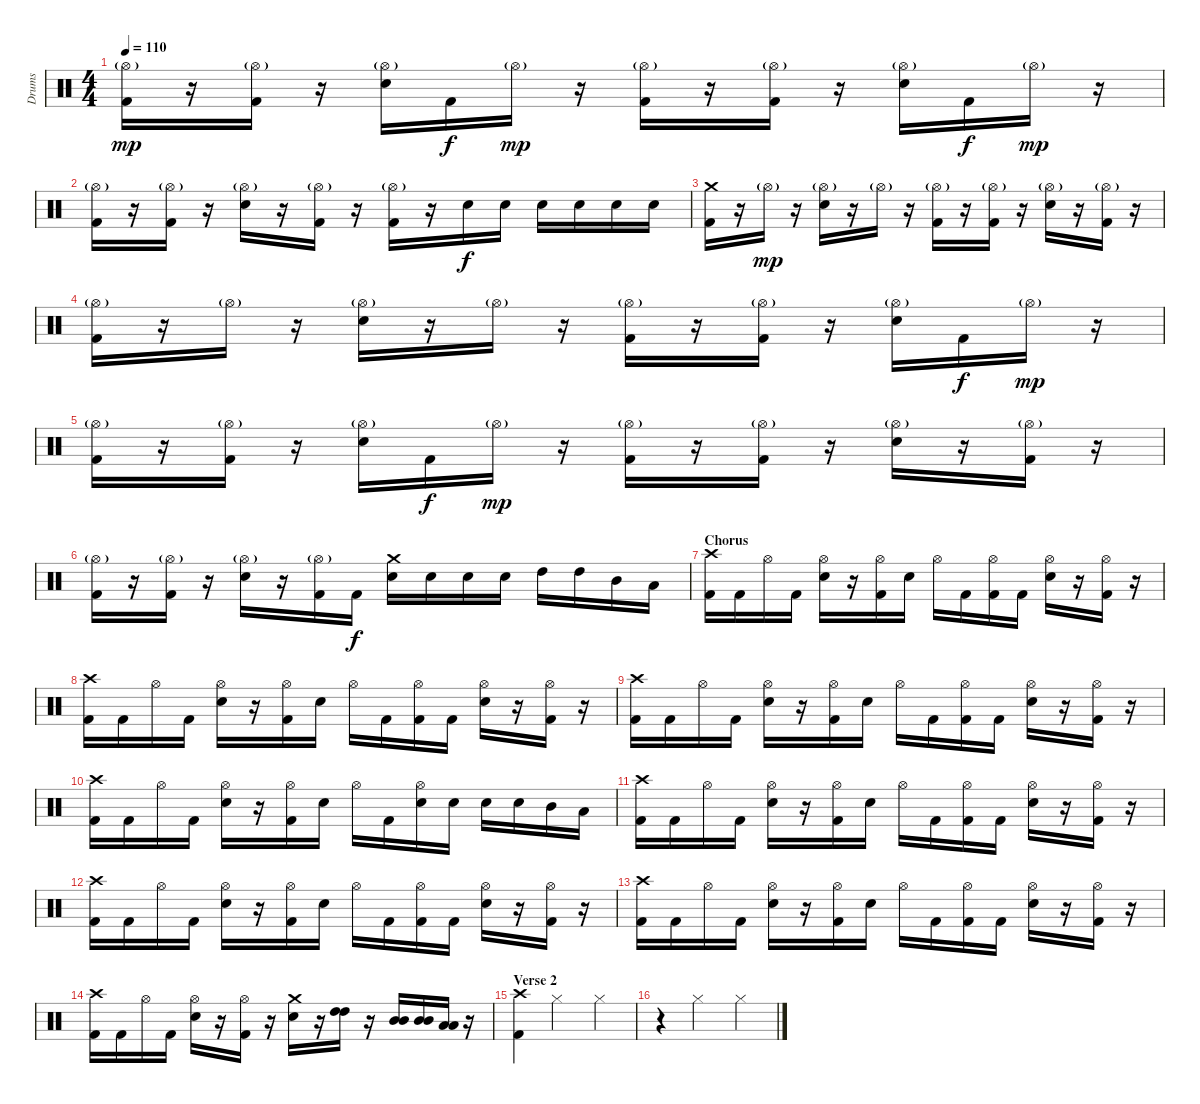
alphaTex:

\track ("Drums" "Drums") {instrument percussion}
\staff {score}
\articulation defaults
\ts (4 4)
\tempo 110
\clef neutral
\ks c
("Hi-Hat (open)"{g} "Kick (hit) 2").16{dy mp} r.16 ("Hi-Hat (open)"{g} "Kick (hit) 2").16 r.16 ("Hi-Hat (open)"{g} "Electric Snare (hit)").16 "Kick (hit) 2".16{dy f} "Hi-Hat (open)"{g}.16{dy mp} r.16 ("Hi-Hat (open)"{g} "Kick (hit) 2").16 r.16 ("Hi-Hat (open)"{g} "Kick (hit) 2").16 r.16 ("Hi-Hat (open)"{g} "Electric Snare (hit)").16 "Kick (hit) 2".16{dy f} "Hi-Hat (open)"{g}.16{dy mp} r.16 |
("Hi-Hat (open)"{g} "Kick (hit) 2").16 r.16 ("Hi-Hat (open)"{g} "Kick (hit) 2").16 r.16 ("Hi-Hat (open)"{g} "Electric Snare (hit)").16 r.16 ("Hi-Hat (open)"{g} "Kick (hit) 2").16 r.16 ("Hi-Hat (open)"{g} "Kick (hit) 2").16 r.16 "Electric Snare (hit)".16{dy f} "Electric Snare (hit)".16 "Electric Snare (hit)".16 "Electric Snare (hit)".16 "Electric Snare (hit)".16 "Electric Snare (hit)".16 |
("Crash medium (hit)" "Kick (hit) 2").16 r.16 "Hi-Hat (open)"{g}.16{dy mp} r.16 ("Hi-Hat (open)"{g} "Electric Snare (hit)").16 r.16 "Hi-Hat (open)"{g}.16 r.16 ("Hi-Hat (open)"{g} "Kick (hit) 2").16 r.16 ("Hi-Hat (open)"{g} "Kick (hit) 2").16 r.16 ("Hi-Hat (open)"{g} "Electric Snare (hit)").16 r.16 ("Hi-Hat (open)"{g} "Kick (hit) 2").16 r.16 |
("Hi-Hat (open)"{g} "Kick (hit) 2").16 r.16 "Hi-Hat (open)"{g}.16 r.16 ("Hi-Hat (open)"{g} "Electric Snare (hit)").16 r.16 "Hi-Hat (open)"{g}.16 r.16 ("Hi-Hat (open)"{g} "Kick (hit) 2").16 r.16 ("Hi-Hat (open)"{g} "Kick (hit) 2").16 r.16 ("Hi-Hat (open)"{g} "Electric Snare (hit)").16 "Kick (hit) 2".16{dy f} "Hi-Hat (open)"{g}.16{dy mp} r.16 |
("Hi-Hat (open)"{g} "Kick (hit) 2").16 r.16 ("Hi-Hat (open)"{g} "Kick (hit) 2").16 r.16 ("Hi-Hat (open)"{g} "Electric Snare (hit)").16 "Kick (hit) 2".16{dy f} "Hi-Hat (open)"{g}.16{dy mp} r.16 ("Hi-Hat (open)"{g} "Kick (hit) 2").16 r.16 ("Hi-Hat (open)"{g} "Kick (hit) 2").16 r.16 ("Hi-Hat (open)"{g} "Electric Snare (hit)").16 r.16 ("Hi-Hat (open)"{g} "Kick (hit) 2").16 r.16 |
("Hi-Hat (open)"{g} "Kick (hit) 2").16 r.16 ("Hi-Hat (open)"{g} "Kick (hit) 2").16 r.16 ("Hi-Hat (open)"{g} "Electric Snare (hit)").16 r.16 ("Hi-Hat (open)"{g} "Kick (hit) 2").16 "Kick (hit) 2".16{dy f} ("Crash medium (hit)" "Electric Snare (hit)").16 "Electric Snare (hit)".16 "Electric Snare (hit)".16 "Electric Snare (hit)".16 "High Tom (hit)".16 "High Tom (hit)".16 "Mid Tom (hit)".16 "Low Tom (hit)".16 |
\section ("" "Chorus")
("Crash high (hit)" "Kick (hit) 2").16 "Kick (hit) 2".16 "Hi-Hat (open)".16 "Kick (hit) 2".16 ("Hi-Hat (open)" "Electric Snare (hit)").16 r.16 ("Hi-Hat (open)" "Kick (hit) 2").16 "Electric Snare (hit)".16 "Hi-Hat (open)".16 "Kick (hit) 2".16 ("Hi-Hat (open)" "Kick (hit) 2").16 "Kick (hit) 2".16 ("Hi-Hat (open)" "Electric Snare (hit)").16 r.16 ("Hi-Hat (open)" "Kick (hit) 2").16 r.16 |
("Crash high (hit)" "Kick (hit) 2").16 "Kick (hit) 2".16 "Hi-Hat (open)".16 "Kick (hit) 2".16 ("Hi-Hat (open)" "Electric Snare (hit)").16 r.16 ("Hi-Hat (open)" "Kick (hit) 2").16 "Electric Snare (hit)".16 "Hi-Hat (open)".16 "Kick (hit) 2".16 ("Hi-Hat (open)" "Kick (hit) 2").16 "Kick (hit) 2".16 ("Hi-Hat (open)" "Electric Snare (hit)").16 r.16 ("Hi-Hat (open)" "Kick (hit) 2").16 r.16 |
("Crash high (hit)" "Kick (hit) 2").16 "Kick (hit) 2".16 "Hi-Hat (open)".16 "Kick (hit) 2".16 ("Hi-Hat (open)" "Electric Snare (hit)").16 r.16 ("Hi-Hat (open)" "Kick (hit) 2").16 "Electric Snare (hit)".16 "Hi-Hat (open)".16 "Kick (hit) 2".16 ("Hi-Hat (open)" "Kick (hit) 2").16 "Kick (hit) 2".16 ("Hi-Hat (open)" "Electric Snare (hit)").16 r.16 ("Hi-Hat (open)" "Kick (hit) 2").16 r.16 |
("Crash high (hit)" "Kick (hit) 2").16 "Kick (hit) 2".16 "Hi-Hat (open)".16 "Kick (hit) 2".16 ("Hi-Hat (open)" "Electric Snare (hit)").16 r.16 ("Hi-Hat (open)" "Kick (hit) 2").16 "Electric Snare (hit)".16 "Hi-Hat (open)".16 "Kick (hit) 2".16 ("Hi-Hat (open)" "Electric Snare (hit)").16 "Electric Snare (hit)".16 "Electric Snare (hit)".16 "Electric Snare (hit)".16 "Mid Tom (hit)".16 "Low Tom (hit)".16 |
("Crash high (hit)" "Kick (hit) 2").16 "Kick (hit) 2".16 "Hi-Hat (open)".16 "Kick (hit) 2".16 ("Hi-Hat (open)" "Electric Snare (hit)").16 r.16 ("Hi-Hat (open)" "Kick (hit) 2").16 "Electric Snare (hit)".16 "Hi-Hat (open)".16 "Kick (hit) 2".16 ("Hi-Hat (open)" "Kick (hit) 2").16 "Kick (hit) 2".16 ("Hi-Hat (open)" "Electric Snare (hit)").16 r.16 ("Hi-Hat (open)" "Kick (hit) 2").16 r.16 |
("Crash high (hit)" "Kick (hit) 2").16 "Kick (hit) 2".16 "Hi-Hat (open)".16 "Kick (hit) 2".16 ("Hi-Hat (open)" "Electric Snare (hit)").16 r.16 ("Hi-Hat (open)" "Kick (hit) 2").16 "Electric Snare (hit)".16 "Hi-Hat (open)".16 "Kick (hit) 2".16 ("Hi-Hat (open)" "Kick (hit) 2").16 "Kick (hit) 2".16 ("Hi-Hat (open)" "Electric Snare (hit)").16 r.16 ("Hi-Hat (open)" "Kick (hit) 2").16 r.16 |
("Crash high (hit)" "Kick (hit) 2").16 "Kick (hit) 2".16 "Hi-Hat (open)".16 "Kick (hit) 2".16 ("Hi-Hat (open)" "Electric Snare (hit)").16 r.16 ("Hi-Hat (open)" "Kick (hit) 2").16 "Electric Snare (hit)".16 "Hi-Hat (open)".16 "Kick (hit) 2".16 ("Hi-Hat (open)" "Kick (hit) 2").16 "Kick (hit) 2".16 ("Hi-Hat (open)" "Electric Snare (hit)").16 r.16 ("Hi-Hat (open)" "Kick (hit) 2").16 r.16 |
("Crash high (hit)" "Kick (hit) 2").16 "Kick (hit) 2".16 "Hi-Hat (open)".16 "Kick (hit) 2".16 ("Hi-Hat (open)" "Electric Snare (hit)").16 r.16 ("Hi-Hat (open)" "Kick (hit) 2").16 r.16 ("Crash medium (hit)" "Electric Snare (hit)").16 r.16 ("High Tom (hit)" "High Tom (hit)").16{bd 60} r.16 ("Mid Tom (hit)" "Mid Tom (hit)").16{bd 60} ("Mid Tom (hit)" "Mid Tom (hit)").16{bd 60} ("Low Floor Tom (hit)" "Low Tom (hit)").16{bd 60} r.16 |
\section ("" "Verse 2")
("Crash high (hit)" "Kick (hit) 2").4 "Hi-Hat (closed)".2 "Hi-Hat (closed)".4 |
r.4 "Hi-Hat (closed)".2 "Hi-Hat (closed)".4
